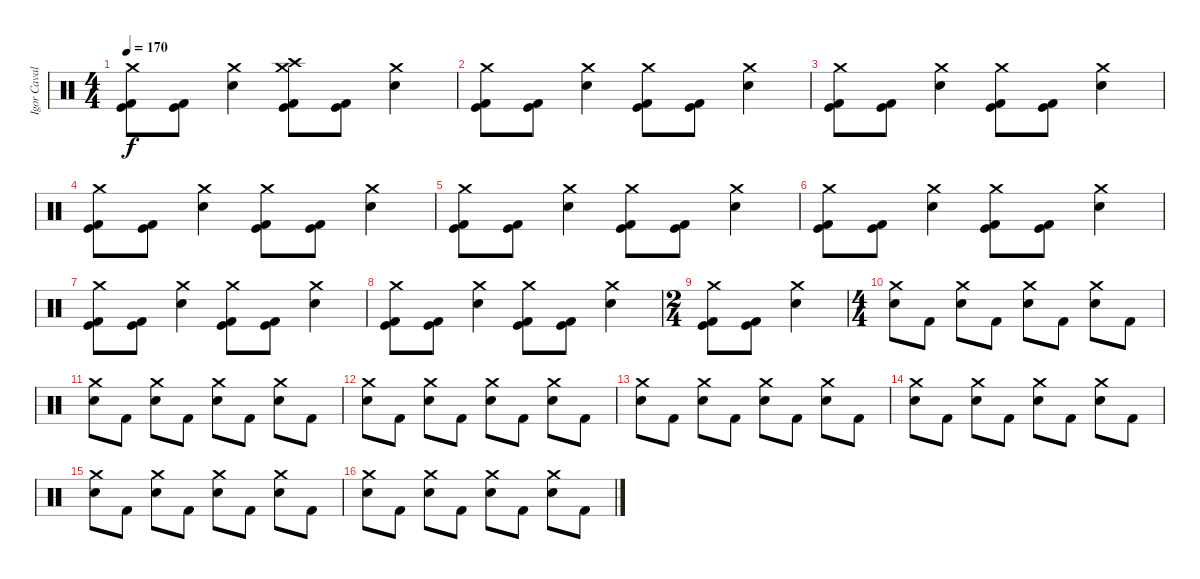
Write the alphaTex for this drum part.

\track ("Igor Cavalera" "Igor Caval") {instrument percussion}
\staff {score}
\articulation defaults
\ts (4 4)
\tempo 170
\clef neutral
\ks c
("Crash medium (hit)" "Kick (hit)" "Kick (hit) 2").8{dy f} ("Kick (hit)" "Kick (hit) 2").8 ("Crash medium (hit)" "Snare (hit) 2").4 ("Crash high (hit)" "Crash medium (hit)" "Kick (hit)" "Kick (hit) 2").8 ("Kick (hit)" "Kick (hit) 2").8 ("Crash medium (hit)" "Snare (hit) 2").4 |
("Crash medium (hit)" "Kick (hit)" "Kick (hit) 2").8 ("Kick (hit)" "Kick (hit) 2").8 ("Crash medium (hit)" "Snare (hit) 2").4 ("Crash medium (hit)" "Kick (hit)" "Kick (hit) 2").8 ("Kick (hit)" "Kick (hit) 2").8 ("Crash medium (hit)" "Snare (hit) 2").4 |
("Crash medium (hit)" "Kick (hit)" "Kick (hit) 2").8 ("Kick (hit)" "Kick (hit) 2").8 ("Crash medium (hit)" "Snare (hit) 2").4 ("Crash medium (hit)" "Kick (hit)" "Kick (hit) 2").8 ("Kick (hit)" "Kick (hit) 2").8 ("Crash medium (hit)" "Snare (hit) 2").4 |
("Crash medium (hit)" "Kick (hit)" "Kick (hit) 2").8 ("Kick (hit)" "Kick (hit) 2").8 ("Crash medium (hit)" "Snare (hit) 2").4 ("Crash medium (hit)" "Kick (hit)" "Kick (hit) 2").8 ("Kick (hit)" "Kick (hit) 2").8 ("Crash medium (hit)" "Snare (hit) 2").4 |
("Crash medium (hit)" "Kick (hit)" "Kick (hit) 2").8 ("Kick (hit)" "Kick (hit) 2").8 ("Crash medium (hit)" "Snare (hit) 2").4 ("Crash medium (hit)" "Kick (hit)" "Kick (hit) 2").8 ("Kick (hit)" "Kick (hit) 2").8 ("Crash medium (hit)" "Snare (hit) 2").4 |
("Crash medium (hit)" "Kick (hit)" "Kick (hit) 2").8 ("Kick (hit)" "Kick (hit) 2").8 ("Crash medium (hit)" "Snare (hit) 2").4 ("Crash medium (hit)" "Kick (hit)" "Kick (hit) 2").8 ("Kick (hit)" "Kick (hit) 2").8 ("Crash medium (hit)" "Snare (hit) 2").4 |
("Crash medium (hit)" "Kick (hit)" "Kick (hit) 2").8 ("Kick (hit)" "Kick (hit) 2").8 ("Crash medium (hit)" "Snare (hit) 2").4 ("Crash medium (hit)" "Kick (hit)" "Kick (hit) 2").8 ("Kick (hit)" "Kick (hit) 2").8 ("Crash medium (hit)" "Snare (hit) 2").4 |
("Crash medium (hit)" "Kick (hit)" "Kick (hit) 2").8 ("Kick (hit)" "Kick (hit) 2").8 ("Crash medium (hit)" "Snare (hit) 2").4 ("Crash medium (hit)" "Kick (hit)" "Kick (hit) 2").8 ("Kick (hit)" "Kick (hit) 2").8 ("Crash medium (hit)" "Snare (hit) 2").4 |
\ts (2 4)
("Crash medium (hit)" "Kick (hit)" "Kick (hit) 2").8 ("Kick (hit)" "Kick (hit) 2").8 ("Crash medium (hit)" "Snare (hit) 2").4 |
\ts (4 4)
("Crash medium (hit)" "Snare (hit) 2").8 "Kick (hit) 2".8 ("Crash medium (hit)" "Snare (hit) 2").8 "Kick (hit) 2".8 ("Crash medium (hit)" "Snare (hit) 2").8 "Kick (hit) 2".8 ("Crash medium (hit)" "Snare (hit) 2").8 "Kick (hit) 2".8 |
("Crash medium (hit)" "Snare (hit) 2").8 "Kick (hit) 2".8 ("Crash medium (hit)" "Snare (hit) 2").8 "Kick (hit) 2".8 ("Crash medium (hit)" "Snare (hit) 2").8 "Kick (hit) 2".8 ("Crash medium (hit)" "Snare (hit) 2").8 "Kick (hit) 2".8 |
("Crash medium (hit)" "Snare (hit) 2").8 "Kick (hit) 2".8 ("Crash medium (hit)" "Snare (hit) 2").8 "Kick (hit) 2".8 ("Crash medium (hit)" "Snare (hit) 2").8 "Kick (hit) 2".8 ("Crash medium (hit)" "Snare (hit) 2").8 "Kick (hit) 2".8 |
("Crash medium (hit)" "Snare (hit) 2").8 "Kick (hit) 2".8 ("Crash medium (hit)" "Snare (hit) 2").8 "Kick (hit) 2".8 ("Crash medium (hit)" "Snare (hit) 2").8 "Kick (hit) 2".8 ("Crash medium (hit)" "Snare (hit) 2").8 "Kick (hit) 2".8 |
("Crash medium (hit)" "Snare (hit) 2").8 "Kick (hit) 2".8 ("Crash medium (hit)" "Snare (hit) 2").8 "Kick (hit) 2".8 ("Crash medium (hit)" "Snare (hit) 2").8 "Kick (hit) 2".8 ("Crash medium (hit)" "Snare (hit) 2").8 "Kick (hit) 2".8 |
("Crash medium (hit)" "Snare (hit) 2").8 "Kick (hit) 2".8 ("Crash medium (hit)" "Snare (hit) 2").8 "Kick (hit) 2".8 ("Crash medium (hit)" "Snare (hit) 2").8 "Kick (hit) 2".8 ("Crash medium (hit)" "Snare (hit) 2").8 "Kick (hit) 2".8 |
("Crash medium (hit)" "Snare (hit) 2").8 "Kick (hit) 2".8 ("Crash medium (hit)" "Snare (hit) 2").8 "Kick (hit) 2".8 ("Crash medium (hit)" "Snare (hit) 2").8 "Kick (hit) 2".8 ("Crash medium (hit)" "Snare (hit) 2").8 "Kick (hit) 2".8
